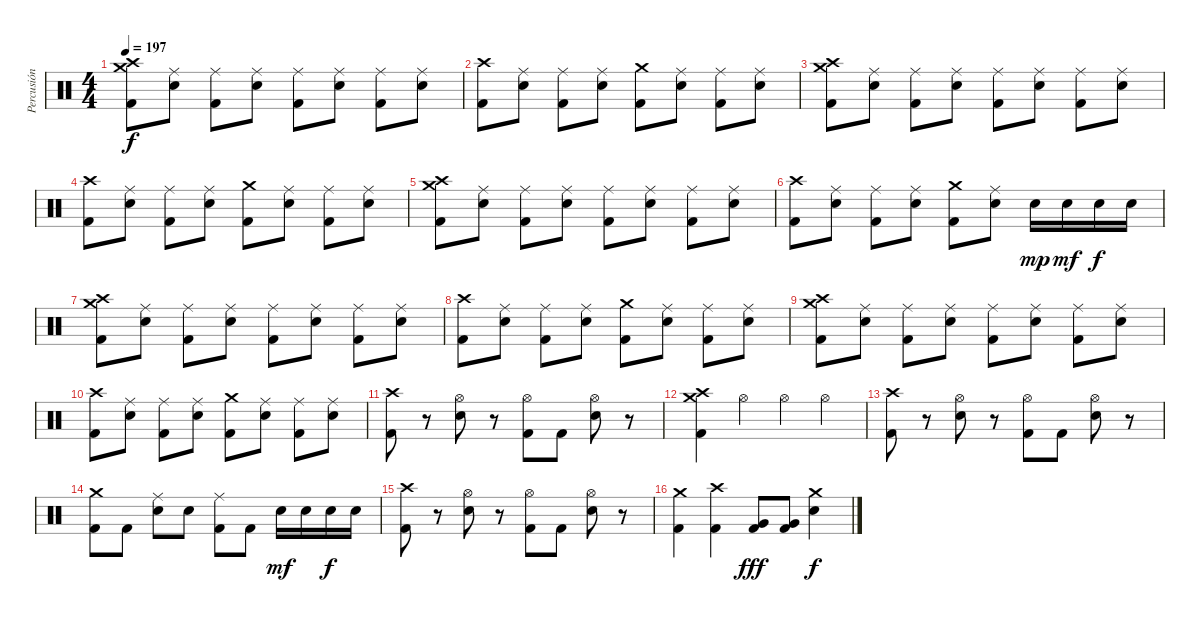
\track ("Percusión" "Percusión") {instrument percussion}
\staff {score}
\articulation defaults
\ts (4 4)
\tempo 197
\clef neutral
\ks c
("Crash high (hit)" "Crash medium (hit)" "Kick (hit) 2").8{dy f} ("Ride (middle)" "Electric Snare (hit)").8 ("Ride (middle)" "Kick (hit) 2").8 ("Ride (middle)" "Electric Snare (hit)").8 ("Ride (middle)" "Kick (hit) 2").8 ("Ride (middle)" "Electric Snare (hit)").8 ("Ride (middle)" "Kick (hit) 2").8 ("Ride (middle)" "Electric Snare (hit)").8 |
("Crash high (hit)" "Kick (hit) 2").8 ("Ride (middle)" "Electric Snare (hit)").8 ("Ride (middle)" "Kick (hit) 2").8 ("Ride (middle)" "Electric Snare (hit)").8 ("Crash medium (hit)" "Kick (hit) 2").8 ("Ride (middle)" "Electric Snare (hit)").8 ("Ride (middle)" "Kick (hit) 2").8 ("Ride (middle)" "Electric Snare (hit)").8 |
("Crash high (hit)" "Crash medium (hit)" "Kick (hit) 2").8 ("Ride (middle)" "Electric Snare (hit)").8 ("Ride (middle)" "Kick (hit) 2").8 ("Ride (middle)" "Electric Snare (hit)").8 ("Ride (middle)" "Kick (hit) 2").8 ("Ride (middle)" "Electric Snare (hit)").8 ("Ride (middle)" "Kick (hit) 2").8 ("Ride (middle)" "Electric Snare (hit)").8 |
("Crash high (hit)" "Kick (hit) 2").8 ("Ride (middle)" "Electric Snare (hit)").8 ("Ride (middle)" "Kick (hit) 2").8 ("Ride (middle)" "Electric Snare (hit)").8 ("Crash medium (hit)" "Kick (hit) 2").8 ("Ride (middle)" "Electric Snare (hit)").8 ("Ride (middle)" "Kick (hit) 2").8 ("Ride (middle)" "Electric Snare (hit)").8 |
("Crash high (hit)" "Crash medium (hit)" "Kick (hit) 2").8 ("Ride (middle)" "Electric Snare (hit)").8 ("Ride (middle)" "Kick (hit) 2").8 ("Ride (middle)" "Electric Snare (hit)").8 ("Ride (middle)" "Kick (hit) 2").8 ("Ride (middle)" "Electric Snare (hit)").8 ("Ride (middle)" "Kick (hit) 2").8 ("Ride (middle)" "Electric Snare (hit)").8 |
("Crash high (hit)" "Kick (hit) 2").8 ("Ride (middle)" "Electric Snare (hit)").8 ("Ride (middle)" "Kick (hit) 2").8 ("Ride (middle)" "Electric Snare (hit)").8 ("Crash medium (hit)" "Kick (hit) 2").8 ("Ride (middle)" "Electric Snare (hit)").8 "Electric Snare (hit)".16{dy mp} "Electric Snare (hit)".16{dy mf} "Electric Snare (hit)".16{dy f} "Electric Snare (hit)".16 |
("Crash high (hit)" "Crash medium (hit)" "Kick (hit) 2").8 ("Ride (middle)" "Electric Snare (hit)").8 ("Ride (middle)" "Kick (hit) 2").8 ("Ride (middle)" "Electric Snare (hit)").8 ("Ride (middle)" "Kick (hit) 2").8 ("Ride (middle)" "Electric Snare (hit)").8 ("Ride (middle)" "Kick (hit) 2").8 ("Ride (middle)" "Electric Snare (hit)").8 |
("Crash high (hit)" "Kick (hit) 2").8 ("Ride (middle)" "Electric Snare (hit)").8 ("Ride (middle)" "Kick (hit) 2").8 ("Ride (middle)" "Electric Snare (hit)").8 ("Crash medium (hit)" "Kick (hit) 2").8 ("Ride (middle)" "Electric Snare (hit)").8 ("Ride (middle)" "Kick (hit) 2").8 ("Ride (middle)" "Electric Snare (hit)").8 |
("Crash high (hit)" "Crash medium (hit)" "Kick (hit) 2").8 ("Ride (middle)" "Electric Snare (hit)").8 ("Ride (middle)" "Kick (hit) 2").8 ("Ride (middle)" "Electric Snare (hit)").8 ("Ride (middle)" "Kick (hit) 2").8 ("Ride (middle)" "Electric Snare (hit)").8 ("Ride (middle)" "Kick (hit) 2").8 ("Ride (middle)" "Electric Snare (hit)").8 |
("Crash high (hit)" "Kick (hit) 2").8 ("Ride (middle)" "Electric Snare (hit)").8 ("Ride (middle)" "Kick (hit) 2").8 ("Ride (middle)" "Electric Snare (hit)").8 ("Crash medium (hit)" "Kick (hit) 2").8 ("Ride (middle)" "Electric Snare (hit)").8 ("Ride (middle)" "Kick (hit) 2").8 ("Ride (middle)" "Electric Snare (hit)").8 |
("Crash high (hit)" "Kick (hit) 2").8 r.8 ("Hi-Hat (open)" "Electric Snare (hit)").8 r.8 ("Hi-Hat (open)" "Kick (hit) 2").8 "Kick (hit) 2".8 ("Hi-Hat (open)" "Electric Snare (hit)").8 r.8 |
("Crash high (hit)" "Crash medium (hit)" "Kick (hit) 2").4 "Hi-Hat (open)".4 "Hi-Hat (open)".4 "Hi-Hat (open)".4 |
("Crash high (hit)" "Kick (hit) 2").8 r.8 ("Hi-Hat (open)" "Electric Snare (hit)").8 r.8 ("Hi-Hat (open)" "Kick (hit) 2").8 "Kick (hit) 2".8 ("Hi-Hat (open)" "Electric Snare (hit)").8 r.8 |
("Crash medium (hit)" "Kick (hit) 2").8 "Kick (hit) 2".8 ("Ride (middle)" "Electric Snare (hit)").8 "Electric Snare (hit)".8 ("Ride (middle)" "Kick (hit) 2").8 "Kick (hit) 2".8 "Electric Snare (hit)".16{dy mf} "Electric Snare (hit)".16 "Electric Snare (hit)".16{dy f} "Electric Snare (hit)".16 |
("Crash high (hit)" "Kick (hit) 2").8 r.8 ("Hi-Hat (open)" "Electric Snare (hit)").8 r.8 ("Hi-Hat (open)" "Kick (hit) 2").8 "Kick (hit) 2".8 ("Hi-Hat (open)" "Electric Snare (hit)").8 r.8 |
("Crash medium (hit)" "Kick (hit) 2").4 ("Crash high (hit)" "Kick (hit) 2").4 ("Very Low Tom (hit)" "Kick (hit) 2").8{dy fff} ("Very Low Tom (hit)" "Kick (hit) 2").8 ("Crash medium (hit)" "Electric Snare (hit)").4{dy f}
